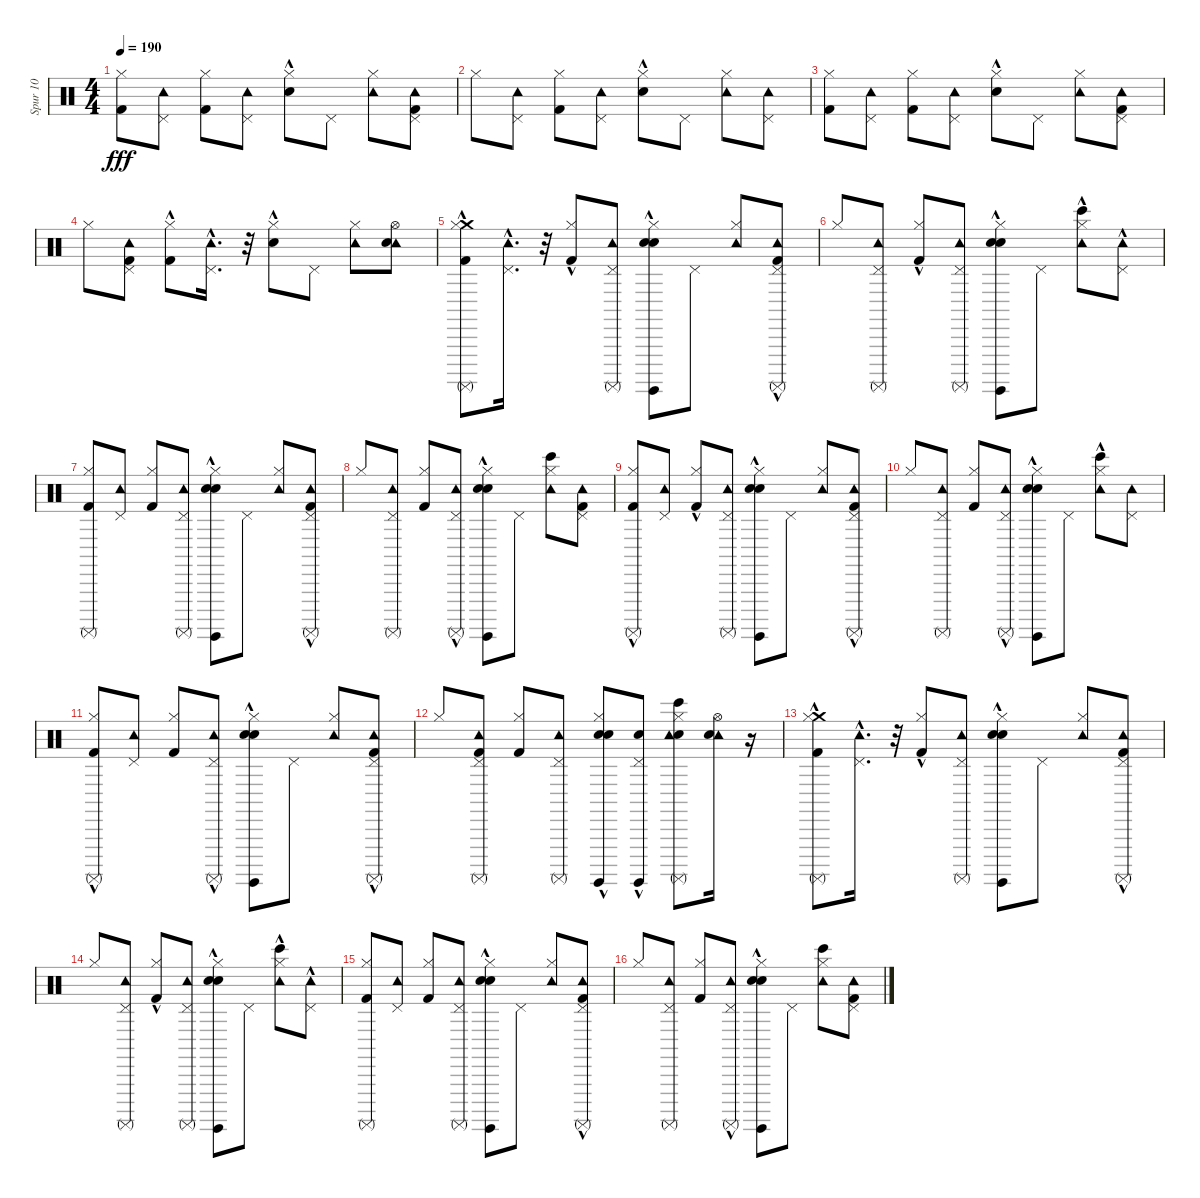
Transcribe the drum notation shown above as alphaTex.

\track ("Spur 10" "Spur 10") {instrument percussion}
\staff {score}
\articulation defaults
\ts (4 4)
\tempo 190
\clef neutral
\ks c
("Hi-Hat (closed)" "Kick (hit) 2").8{dy fff} ("Pedal Hi-Hat (hit)" "Tambourine (hit)").8 ("Hi-Hat (closed)" "Kick (hit) 2").8 ("Tambourine (hit)" "Pedal Hi-Hat (hit)").8 ("Hi-Hat (closed)" "Electric Snare (hit)"{hac}).8 "Pedal Hi-Hat (hit)".8 ("Tambourine (hit)" "Hi-Hat (closed)").8 ("Tambourine (hit)" "Pedal Hi-Hat (hit)" "Kick (hit) 2").8 |
"Hi-Hat (closed)".8 ("Tambourine (hit)" "Pedal Hi-Hat (hit)").8 ("Kick (hit) 2" "Hi-Hat (closed)").8 ("Pedal Hi-Hat (hit)" "Tambourine (hit)").8 ("Hi-Hat (closed)" "Electric Snare (hit)"{hac}).8 "Pedal Hi-Hat (hit)".8 ("Tambourine (hit)" "Hi-Hat (closed)").8 ("Tambourine (hit)" "Pedal Hi-Hat (hit)").8 |
("Hi-Hat (closed)" "Kick (hit) 2").8 ("Pedal Hi-Hat (hit)" "Tambourine (hit)").8 ("Kick (hit) 2" "Hi-Hat (closed)").8 ("Tambourine (hit)" "Pedal Hi-Hat (hit)").8 ("Hi-Hat (closed)" "Electric Snare (hit)"{hac}).8 "Pedal Hi-Hat (hit)".8 ("Tambourine (hit)" "Hi-Hat (closed)").8 ("Tambourine (hit)" "Pedal Hi-Hat (hit)" "Kick (hit) 2").8 |
"Hi-Hat (closed)".8 ("Tambourine (hit)" "Pedal Hi-Hat (hit)" "Kick (hit) 2").8 ("Hi-Hat (closed)" "Kick (hit) 2"{hac}).8 ("Pedal Hi-Hat (hit)"{hac} "Tambourine (hit)").16{d} r.32 ("Hi-Hat (closed)" "Electric Snare (hit)"{hac}).8 "Pedal Hi-Hat (hit)".8 ("Tambourine (hit)" "Hi-Hat (closed)").8 ("Tambourine (hit)" "Hi-Hat (open)" "Electric Snare (hit)").8 |
("Surdo (mute)"{hac} "Crash medium (hit)" "Hi-Hat (closed)" "Kick (hit) 2").8 ("Tambourine (hit)" "Pedal Hi-Hat (hit)"{hac}).16{d} r.32 ("Kick (hit) 2"{hac} "Hi-Hat (closed)").8 ("Surdo (mute)" "Tambourine (hit)" "Pedal Hi-Hat (hit)").8 ("Surdo (hit)" "Hand Clap (hit)" "Hi-Hat (closed)" "Electric Snare (hit)"{hac}).8 "Pedal Hi-Hat (hit)".8 ("Tambourine (hit)" "Hi-Hat (closed)").8 ("Surdo (mute)"{hac} "Tambourine (hit)" "Pedal Hi-Hat (hit)" "Kick (hit) 2"{hac}).8 |
"Hi-Hat (closed)".8 ("Surdo (mute)" "Tambourine (hit)" "Pedal Hi-Hat (hit)").8 ("Hi-Hat (closed)" "Kick (hit) 2"{hac}).8 ("Surdo (mute)" "Pedal Hi-Hat (hit)" "Tambourine (hit)").8 ("Hand Clap (hit)"{hac} "Surdo (hit)"{hac} "Hi-Hat (closed)" "Electric Snare (hit)"{hac}).8 "Pedal Hi-Hat (hit)".8 ("Bongo High (hit)"{hac} "Tambourine (hit)" "Hi-Hat (closed)").8 ("Tambourine (hit)"{hac} "Pedal Hi-Hat (hit)").8 |
("Surdo (mute)" "Hi-Hat (closed)" "Kick (hit) 2").8 ("Tambourine (hit)" "Pedal Hi-Hat (hit)").8 ("Hi-Hat (closed)" "Kick (hit) 2").8 ("Surdo (mute)" "Tambourine (hit)" "Pedal Hi-Hat (hit)").8 ("Surdo (hit)"{hac} "Hand Clap (hit)"{hac} "Hi-Hat (closed)" "Electric Snare (hit)"{hac}).8 "Pedal Hi-Hat (hit)".8 ("Tambourine (hit)" "Hi-Hat (closed)").8 ("Surdo (mute)" "Tambourine (hit)" "Pedal Hi-Hat (hit)" "Kick (hit) 2"{hac}).8 |
"Hi-Hat (closed)".8 ("Surdo (mute)" "Tambourine (hit)" "Pedal Hi-Hat (hit)").8 ("Hi-Hat (closed)" "Kick (hit) 2").8 ("Surdo (mute)"{hac} "Tambourine (hit)" "Pedal Hi-Hat (hit)").8 ("Hand Clap (hit)"{hac} "Surdo (hit)"{hac} "Hi-Hat (closed)" "Electric Snare (hit)"{hac}).8 "Pedal Hi-Hat (hit)".8 ("Bongo High (hit)" "Tambourine (hit)" "Hi-Hat (closed)").8 ("Tambourine (hit)" "Pedal Hi-Hat (hit)" "Kick (hit) 2").8 |
("Surdo (mute)" "Hi-Hat (closed)" "Kick (hit) 2"{hac}).8 ("Tambourine (hit)" "Pedal Hi-Hat (hit)").8 ("Hi-Hat (closed)" "Kick (hit) 2"{hac}).8 ("Surdo (mute)" "Pedal Hi-Hat (hit)" "Tambourine (hit)").8 ("Hand Clap (hit)"{hac} "Surdo (hit)"{hac} "Hi-Hat (closed)" "Electric Snare (hit)"{hac}).8 "Pedal Hi-Hat (hit)".8 ("Tambourine (hit)" "Hi-Hat (closed)").8 ("Surdo (mute)" "Pedal Hi-Hat (hit)" "Kick (hit) 2"{hac} "Tambourine (hit)").8 |
"Hi-Hat (closed)".8 ("Surdo (mute)" "Tambourine (hit)" "Pedal Hi-Hat (hit)").8 ("Hi-Hat (closed)" "Kick (hit) 2").8 ("Surdo (mute)"{hac} "Pedal Hi-Hat (hit)" "Tambourine (hit)").8 ("Hand Clap (hit)"{hac} "Surdo (hit)"{hac} "Hi-Hat (closed)" "Electric Snare (hit)"{hac}).8 "Pedal Hi-Hat (hit)".8 ("Bongo High (hit)"{hac} "Tambourine (hit)" "Hi-Hat (closed)").8 ("Pedal Hi-Hat (hit)" "Tambourine (hit)").8 |
("Surdo (mute)" "Hi-Hat (closed)" "Kick (hit) 2"{hac}).8 ("Tambourine (hit)" "Pedal Hi-Hat (hit)").8 ("Hi-Hat (closed)" "Kick (hit) 2").8 ("Surdo (mute)"{hac} "Pedal Hi-Hat (hit)" "Tambourine (hit)").8 ("Surdo (hit)"{hac} "Hand Clap (hit)"{hac} "Hi-Hat (closed)" "Electric Snare (hit)"{hac}).8 "Pedal Hi-Hat (hit)".8 ("Tambourine (hit)" "Hi-Hat (closed)").8 ("Surdo (mute)" "Pedal Hi-Hat (hit)" "Kick (hit) 2"{hac} "Tambourine (hit)").8 |
"Hi-Hat (closed)".8 ("Surdo (mute)" "Tambourine (hit)" "Kick (hit) 2" "Pedal Hi-Hat (hit)").8 ("Kick (hit) 2" "Hi-Hat (closed)").8 ("Surdo (mute)" "Tambourine (hit)" "Pedal Hi-Hat (hit)").8 ("Hand Clap (hit)"{hac} "Surdo (hit)" "Electric Snare (hit)" "Hi-Hat (closed)").8 ("Surdo (hit)"{hac} "Electric Snare (hit)" "Pedal Hi-Hat (hit)").8 ("Surdo (mute)" "Bongo High (hit)" "Electric Snare (hit)" "Tambourine (hit)" "Hi-Hat (closed)").8 ("Tambourine (hit)" "Electric Snare (hit)" "Hi-Hat (open)").16 r.16 |
("Surdo (mute)"{hac} "Crash medium (hit)" "Hi-Hat (closed)" "Kick (hit) 2").8 ("Tambourine (hit)" "Pedal Hi-Hat (hit)"{hac}).16{d} r.32 ("Kick (hit) 2"{hac} "Hi-Hat (closed)").8 ("Surdo (mute)" "Tambourine (hit)" "Pedal Hi-Hat (hit)").8 ("Surdo (hit)" "Hand Clap (hit)" "Hi-Hat (closed)" "Electric Snare (hit)"{hac}).8 "Pedal Hi-Hat (hit)".8 ("Tambourine (hit)" "Hi-Hat (closed)").8 ("Surdo (mute)"{hac} "Tambourine (hit)" "Pedal Hi-Hat (hit)" "Kick (hit) 2"{hac}).8 |
"Hi-Hat (closed)".8 ("Surdo (mute)" "Tambourine (hit)" "Pedal Hi-Hat (hit)").8 ("Hi-Hat (closed)" "Kick (hit) 2"{hac}).8 ("Surdo (mute)" "Pedal Hi-Hat (hit)" "Tambourine (hit)").8 ("Hand Clap (hit)"{hac} "Surdo (hit)"{hac} "Hi-Hat (closed)" "Electric Snare (hit)"{hac}).8 "Pedal Hi-Hat (hit)".8 ("Bongo High (hit)"{hac} "Tambourine (hit)" "Hi-Hat (closed)").8 ("Tambourine (hit)"{hac} "Pedal Hi-Hat (hit)").8 |
("Surdo (mute)" "Hi-Hat (closed)" "Kick (hit) 2").8 ("Tambourine (hit)" "Pedal Hi-Hat (hit)").8 ("Hi-Hat (closed)" "Kick (hit) 2").8 ("Surdo (mute)" "Tambourine (hit)" "Pedal Hi-Hat (hit)").8 ("Surdo (hit)"{hac} "Hand Clap (hit)"{hac} "Hi-Hat (closed)" "Electric Snare (hit)"{hac}).8 "Pedal Hi-Hat (hit)".8 ("Tambourine (hit)" "Hi-Hat (closed)").8 ("Surdo (mute)" "Tambourine (hit)" "Pedal Hi-Hat (hit)" "Kick (hit) 2"{hac}).8 |
"Hi-Hat (closed)".8 ("Surdo (mute)" "Tambourine (hit)" "Pedal Hi-Hat (hit)").8 ("Hi-Hat (closed)" "Kick (hit) 2").8 ("Surdo (mute)"{hac} "Tambourine (hit)" "Pedal Hi-Hat (hit)").8 ("Hand Clap (hit)"{hac} "Surdo (hit)"{hac} "Hi-Hat (closed)" "Electric Snare (hit)"{hac}).8 "Pedal Hi-Hat (hit)".8 ("Bongo High (hit)" "Tambourine (hit)" "Hi-Hat (closed)").8 ("Tambourine (hit)" "Pedal Hi-Hat (hit)" "Kick (hit) 2").8
